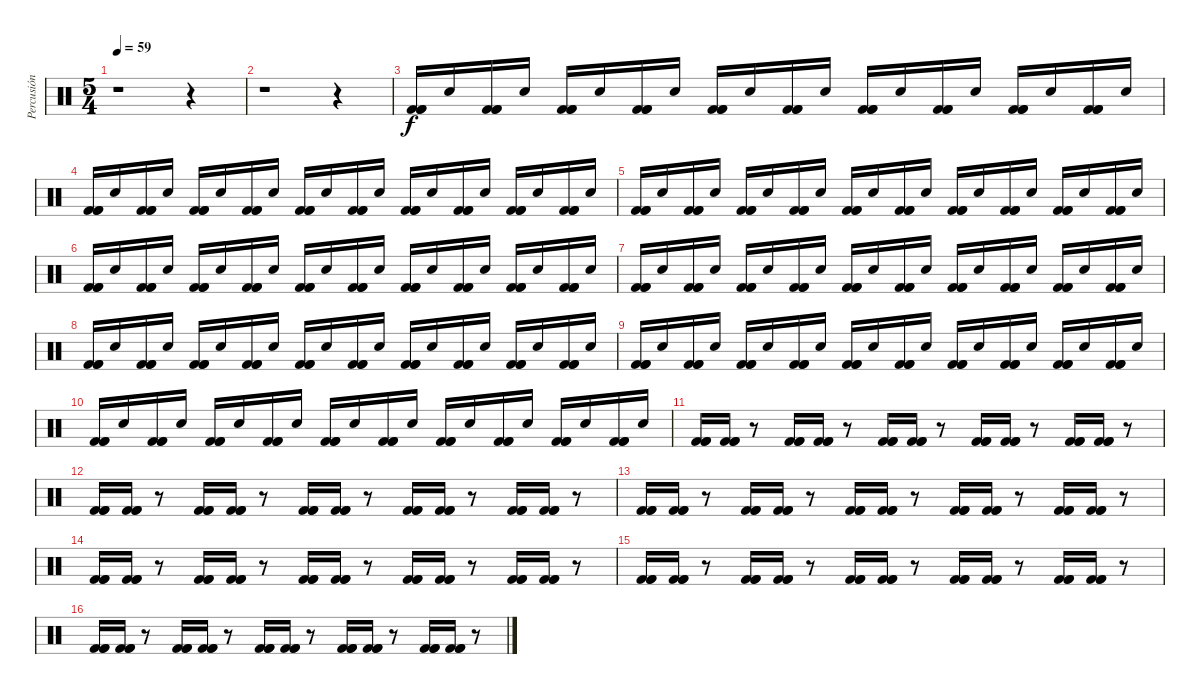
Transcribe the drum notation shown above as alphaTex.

\track ("Percusión" "Percusión") {instrument percussion}
\staff {score}
\articulation defaults
\ts (5 4)
\tempo 59
\clef neutral
\ks c
r.1{dy f} r.4 |
r.1 r.4 |
("Kick (hit) 2" "Kick (hit) 2" "Kick (hit) 2").16 "Snare (hit) 2".16 ("Kick (hit) 2" "Kick (hit) 2" "Kick (hit) 2").16 "Snare (hit) 2".16 ("Kick (hit) 2" "Kick (hit) 2" "Kick (hit) 2").16 "Snare (hit) 2".16 ("Kick (hit) 2" "Kick (hit) 2" "Kick (hit) 2").16 "Snare (hit) 2".16 ("Kick (hit) 2" "Kick (hit) 2" "Kick (hit) 2").16 "Snare (hit) 2".16 ("Kick (hit) 2" "Kick (hit) 2" "Kick (hit) 2").16 "Snare (hit) 2".16 ("Kick (hit) 2" "Kick (hit) 2" "Kick (hit) 2").16 "Snare (hit) 2".16 ("Kick (hit) 2" "Kick (hit) 2" "Kick (hit) 2").16 "Snare (hit) 2".16 ("Kick (hit) 2" "Kick (hit) 2" "Kick (hit) 2").16 "Snare (hit) 2".16 ("Kick (hit) 2" "Kick (hit) 2" "Kick (hit) 2").16 "Snare (hit) 2".16 |
("Kick (hit) 2" "Kick (hit) 2" "Kick (hit) 2").16 "Snare (hit) 2".16 ("Kick (hit) 2" "Kick (hit) 2" "Kick (hit) 2").16 "Snare (hit) 2".16 ("Kick (hit) 2" "Kick (hit) 2" "Kick (hit) 2").16 "Snare (hit) 2".16 ("Kick (hit) 2" "Kick (hit) 2" "Kick (hit) 2").16 "Snare (hit) 2".16 ("Kick (hit) 2" "Kick (hit) 2" "Kick (hit) 2").16 "Snare (hit) 2".16 ("Kick (hit) 2" "Kick (hit) 2" "Kick (hit) 2").16 "Snare (hit) 2".16 ("Kick (hit) 2" "Kick (hit) 2" "Kick (hit) 2").16 "Snare (hit) 2".16 ("Kick (hit) 2" "Kick (hit) 2" "Kick (hit) 2").16 "Snare (hit) 2".16 ("Kick (hit) 2" "Kick (hit) 2" "Kick (hit) 2").16 "Snare (hit) 2".16 ("Kick (hit) 2" "Kick (hit) 2" "Kick (hit) 2").16 "Snare (hit) 2".16 |
("Kick (hit) 2" "Kick (hit) 2" "Kick (hit) 2").16 "Snare (hit) 2".16 ("Kick (hit) 2" "Kick (hit) 2" "Kick (hit) 2").16 "Snare (hit) 2".16 ("Kick (hit) 2" "Kick (hit) 2" "Kick (hit) 2").16 "Snare (hit) 2".16 ("Kick (hit) 2" "Kick (hit) 2" "Kick (hit) 2").16 "Snare (hit) 2".16 ("Kick (hit) 2" "Kick (hit) 2" "Kick (hit) 2").16 "Snare (hit) 2".16 ("Kick (hit) 2" "Kick (hit) 2" "Kick (hit) 2").16 "Snare (hit) 2".16 ("Kick (hit) 2" "Kick (hit) 2" "Kick (hit) 2").16 "Snare (hit) 2".16 ("Kick (hit) 2" "Kick (hit) 2" "Kick (hit) 2").16 "Snare (hit) 2".16 ("Kick (hit) 2" "Kick (hit) 2" "Kick (hit) 2").16 "Snare (hit) 2".16 ("Kick (hit) 2" "Kick (hit) 2" "Kick (hit) 2").16 "Snare (hit) 2".16 |
("Kick (hit) 2" "Kick (hit) 2" "Kick (hit) 2").16 "Snare (hit) 2".16 ("Kick (hit) 2" "Kick (hit) 2" "Kick (hit) 2").16 "Snare (hit) 2".16 ("Kick (hit) 2" "Kick (hit) 2" "Kick (hit) 2").16 "Snare (hit) 2".16 ("Kick (hit) 2" "Kick (hit) 2" "Kick (hit) 2").16 "Snare (hit) 2".16 ("Kick (hit) 2" "Kick (hit) 2" "Kick (hit) 2").16 "Snare (hit) 2".16 ("Kick (hit) 2" "Kick (hit) 2" "Kick (hit) 2").16 "Snare (hit) 2".16 ("Kick (hit) 2" "Kick (hit) 2" "Kick (hit) 2").16 "Snare (hit) 2".16 ("Kick (hit) 2" "Kick (hit) 2" "Kick (hit) 2").16 "Snare (hit) 2".16 ("Kick (hit) 2" "Kick (hit) 2" "Kick (hit) 2").16 "Snare (hit) 2".16 ("Kick (hit) 2" "Kick (hit) 2" "Kick (hit) 2").16 "Snare (hit) 2".16 |
("Kick (hit) 2" "Kick (hit) 2" "Kick (hit) 2").16 "Snare (hit) 2".16 ("Kick (hit) 2" "Kick (hit) 2" "Kick (hit) 2").16 "Snare (hit) 2".16 ("Kick (hit) 2" "Kick (hit) 2" "Kick (hit) 2").16 "Snare (hit) 2".16 ("Kick (hit) 2" "Kick (hit) 2" "Kick (hit) 2").16 "Snare (hit) 2".16 ("Kick (hit) 2" "Kick (hit) 2" "Kick (hit) 2").16 "Snare (hit) 2".16 ("Kick (hit) 2" "Kick (hit) 2" "Kick (hit) 2").16 "Snare (hit) 2".16 ("Kick (hit) 2" "Kick (hit) 2" "Kick (hit) 2").16 "Snare (hit) 2".16 ("Kick (hit) 2" "Kick (hit) 2" "Kick (hit) 2").16 "Snare (hit) 2".16 ("Kick (hit) 2" "Kick (hit) 2" "Kick (hit) 2").16 "Snare (hit) 2".16 ("Kick (hit) 2" "Kick (hit) 2" "Kick (hit) 2").16 "Snare (hit) 2".16 |
("Kick (hit) 2" "Kick (hit) 2" "Kick (hit) 2").16 "Snare (hit) 2".16 ("Kick (hit) 2" "Kick (hit) 2" "Kick (hit) 2").16 "Snare (hit) 2".16 ("Kick (hit) 2" "Kick (hit) 2" "Kick (hit) 2").16 "Snare (hit) 2".16 ("Kick (hit) 2" "Kick (hit) 2" "Kick (hit) 2").16 "Snare (hit) 2".16 ("Kick (hit) 2" "Kick (hit) 2" "Kick (hit) 2").16 "Snare (hit) 2".16 ("Kick (hit) 2" "Kick (hit) 2" "Kick (hit) 2").16 "Snare (hit) 2".16 ("Kick (hit) 2" "Kick (hit) 2" "Kick (hit) 2").16 "Snare (hit) 2".16 ("Kick (hit) 2" "Kick (hit) 2" "Kick (hit) 2").16 "Snare (hit) 2".16 ("Kick (hit) 2" "Kick (hit) 2" "Kick (hit) 2").16 "Snare (hit) 2".16 ("Kick (hit) 2" "Kick (hit) 2" "Kick (hit) 2").16 "Snare (hit) 2".16 |
("Kick (hit) 2" "Kick (hit) 2" "Kick (hit) 2").16 "Snare (hit) 2".16 ("Kick (hit) 2" "Kick (hit) 2" "Kick (hit) 2").16 "Snare (hit) 2".16 ("Kick (hit) 2" "Kick (hit) 2" "Kick (hit) 2").16 "Snare (hit) 2".16 ("Kick (hit) 2" "Kick (hit) 2" "Kick (hit) 2").16 "Snare (hit) 2".16 ("Kick (hit) 2" "Kick (hit) 2" "Kick (hit) 2").16 "Snare (hit) 2".16 ("Kick (hit) 2" "Kick (hit) 2" "Kick (hit) 2").16 "Snare (hit) 2".16 ("Kick (hit) 2" "Kick (hit) 2" "Kick (hit) 2").16 "Snare (hit) 2".16 ("Kick (hit) 2" "Kick (hit) 2" "Kick (hit) 2").16 "Snare (hit) 2".16 ("Kick (hit) 2" "Kick (hit) 2" "Kick (hit) 2").16 "Snare (hit) 2".16 ("Kick (hit) 2" "Kick (hit) 2" "Kick (hit) 2").16 "Snare (hit) 2".16 |
("Kick (hit) 2" "Kick (hit) 2" "Kick (hit) 2").16 "Snare (hit) 2".16 ("Kick (hit) 2" "Kick (hit) 2" "Kick (hit) 2").16 "Snare (hit) 2".16 ("Kick (hit) 2" "Kick (hit) 2" "Kick (hit) 2").16 "Snare (hit) 2".16 ("Kick (hit) 2" "Kick (hit) 2" "Kick (hit) 2").16 "Snare (hit) 2".16 ("Kick (hit) 2" "Kick (hit) 2" "Kick (hit) 2").16 "Snare (hit) 2".16 ("Kick (hit) 2" "Kick (hit) 2" "Kick (hit) 2").16 "Snare (hit) 2".16 ("Kick (hit) 2" "Kick (hit) 2" "Kick (hit) 2").16 "Snare (hit) 2".16 ("Kick (hit) 2" "Kick (hit) 2" "Kick (hit) 2").16 "Snare (hit) 2".16 ("Kick (hit) 2" "Kick (hit) 2" "Kick (hit) 2").16 "Snare (hit) 2".16 ("Kick (hit) 2" "Kick (hit) 2" "Kick (hit) 2").16 "Snare (hit) 2".16 |
("Kick (hit) 2" "Kick (hit) 2" "Kick (hit) 2").16 ("Kick (hit) 2" "Kick (hit) 2" "Kick (hit) 2").16 r.8 ("Kick (hit) 2" "Kick (hit) 2" "Kick (hit) 2").16 ("Kick (hit) 2" "Kick (hit) 2" "Kick (hit) 2").16 r.8 ("Kick (hit) 2" "Kick (hit) 2" "Kick (hit) 2").16 ("Kick (hit) 2" "Kick (hit) 2" "Kick (hit) 2").16 r.8 ("Kick (hit) 2" "Kick (hit) 2" "Kick (hit) 2").16 ("Kick (hit) 2" "Kick (hit) 2" "Kick (hit) 2").16 r.8 ("Kick (hit) 2" "Kick (hit) 2" "Kick (hit) 2").16 ("Kick (hit) 2" "Kick (hit) 2" "Kick (hit) 2").16 r.8 |
("Kick (hit) 2" "Kick (hit) 2" "Kick (hit) 2").16 ("Kick (hit) 2" "Kick (hit) 2" "Kick (hit) 2").16 r.8 ("Kick (hit) 2" "Kick (hit) 2" "Kick (hit) 2").16 ("Kick (hit) 2" "Kick (hit) 2" "Kick (hit) 2").16 r.8 ("Kick (hit) 2" "Kick (hit) 2" "Kick (hit) 2").16 ("Kick (hit) 2" "Kick (hit) 2" "Kick (hit) 2").16 r.8 ("Kick (hit) 2" "Kick (hit) 2" "Kick (hit) 2").16 ("Kick (hit) 2" "Kick (hit) 2" "Kick (hit) 2").16 r.8 ("Kick (hit) 2" "Kick (hit) 2" "Kick (hit) 2").16 ("Kick (hit) 2" "Kick (hit) 2" "Kick (hit) 2").16 r.8 |
("Kick (hit) 2" "Kick (hit) 2" "Kick (hit) 2").16 ("Kick (hit) 2" "Kick (hit) 2" "Kick (hit) 2").16 r.8 ("Kick (hit) 2" "Kick (hit) 2" "Kick (hit) 2").16 ("Kick (hit) 2" "Kick (hit) 2" "Kick (hit) 2").16 r.8 ("Kick (hit) 2" "Kick (hit) 2" "Kick (hit) 2").16 ("Kick (hit) 2" "Kick (hit) 2" "Kick (hit) 2").16 r.8 ("Kick (hit) 2" "Kick (hit) 2" "Kick (hit) 2").16 ("Kick (hit) 2" "Kick (hit) 2" "Kick (hit) 2").16 r.8 ("Kick (hit) 2" "Kick (hit) 2" "Kick (hit) 2").16 ("Kick (hit) 2" "Kick (hit) 2" "Kick (hit) 2").16 r.8 |
("Kick (hit) 2" "Kick (hit) 2" "Kick (hit) 2").16 ("Kick (hit) 2" "Kick (hit) 2" "Kick (hit) 2").16 r.8 ("Kick (hit) 2" "Kick (hit) 2" "Kick (hit) 2").16 ("Kick (hit) 2" "Kick (hit) 2" "Kick (hit) 2").16 r.8 ("Kick (hit) 2" "Kick (hit) 2" "Kick (hit) 2").16 ("Kick (hit) 2" "Kick (hit) 2" "Kick (hit) 2").16 r.8 ("Kick (hit) 2" "Kick (hit) 2" "Kick (hit) 2").16 ("Kick (hit) 2" "Kick (hit) 2" "Kick (hit) 2").16 r.8 ("Kick (hit) 2" "Kick (hit) 2" "Kick (hit) 2").16 ("Kick (hit) 2" "Kick (hit) 2" "Kick (hit) 2").16 r.8 |
("Kick (hit) 2" "Kick (hit) 2" "Kick (hit) 2").16 ("Kick (hit) 2" "Kick (hit) 2" "Kick (hit) 2").16 r.8 ("Kick (hit) 2" "Kick (hit) 2" "Kick (hit) 2").16 ("Kick (hit) 2" "Kick (hit) 2" "Kick (hit) 2").16 r.8 ("Kick (hit) 2" "Kick (hit) 2" "Kick (hit) 2").16 ("Kick (hit) 2" "Kick (hit) 2" "Kick (hit) 2").16 r.8 ("Kick (hit) 2" "Kick (hit) 2" "Kick (hit) 2").16 ("Kick (hit) 2" "Kick (hit) 2" "Kick (hit) 2").16 r.8 ("Kick (hit) 2" "Kick (hit) 2" "Kick (hit) 2").16 ("Kick (hit) 2" "Kick (hit) 2" "Kick (hit) 2").16 r.8 |
("Kick (hit) 2" "Kick (hit) 2" "Kick (hit) 2").16 ("Kick (hit) 2" "Kick (hit) 2" "Kick (hit) 2").16 r.8 ("Kick (hit) 2" "Kick (hit) 2" "Kick (hit) 2").16 ("Kick (hit) 2" "Kick (hit) 2" "Kick (hit) 2").16 r.8 ("Kick (hit) 2" "Kick (hit) 2" "Kick (hit) 2").16 ("Kick (hit) 2" "Kick (hit) 2" "Kick (hit) 2").16 r.8 ("Kick (hit) 2" "Kick (hit) 2" "Kick (hit) 2").16 ("Kick (hit) 2" "Kick (hit) 2" "Kick (hit) 2").16 r.8 ("Kick (hit) 2" "Kick (hit) 2" "Kick (hit) 2").16 ("Kick (hit) 2" "Kick (hit) 2" "Kick (hit) 2").16 r.8
